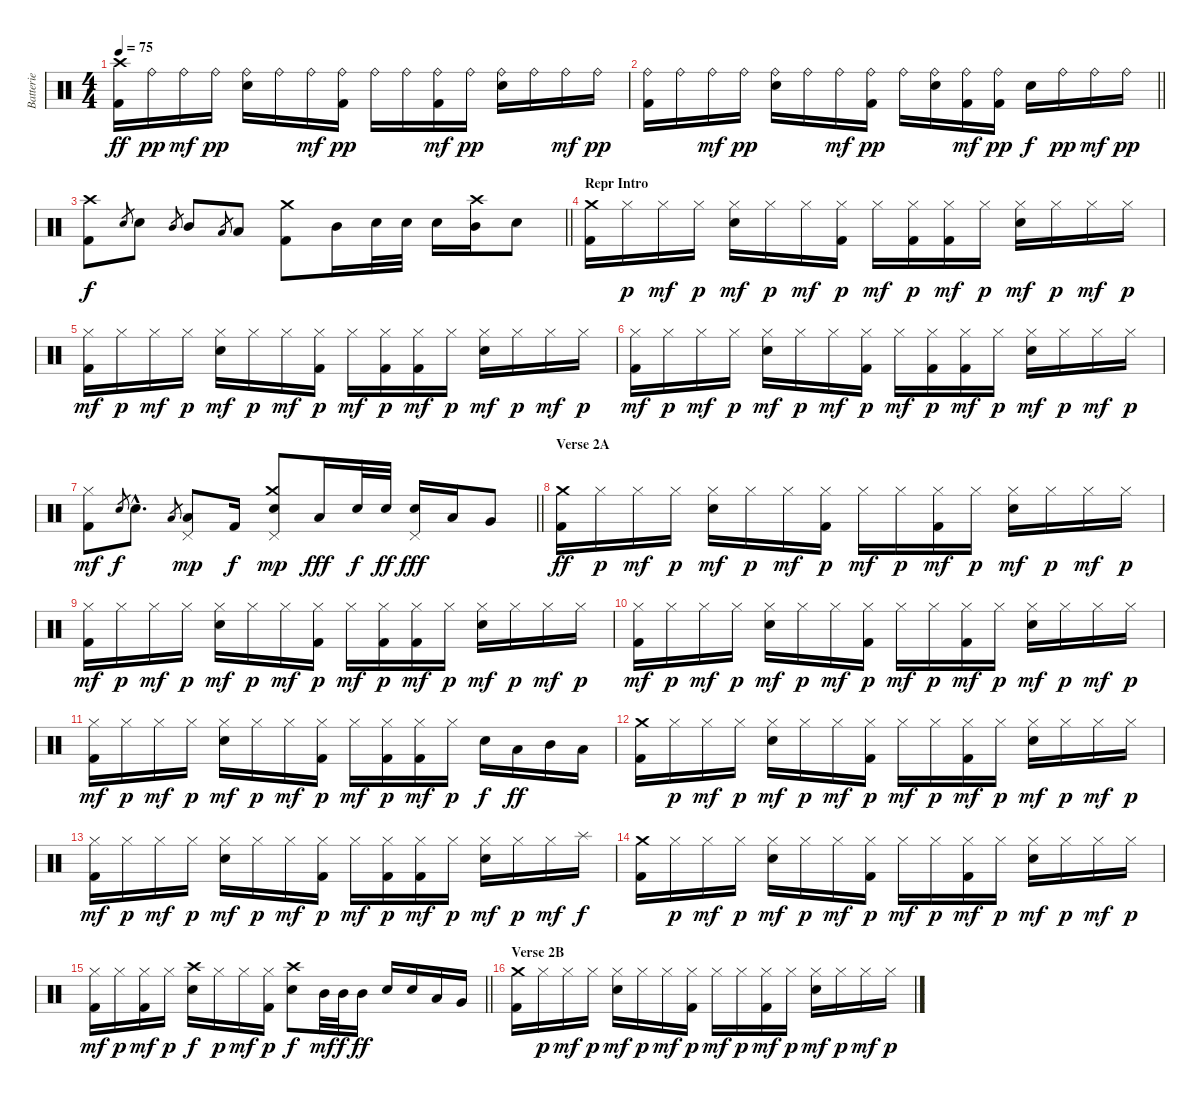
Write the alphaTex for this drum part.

\track ("Batterie" "Batterie") {instrument percussion}
\staff {score}
\articulation defaults
\ts (4 4)
\tempo 75
\clef neutral
\ks c
("Crash high (hit)" "Kick (hit) 2").16{dy ff} "Ride (bell)".16{dy pp} "Ride (bell)".16{dy mf} "Ride (bell)".16{dy pp} ("Ride (bell)" "Electric Snare (hit)").16 "Ride (bell)".16 "Ride (bell)".16{dy mf} ("Ride (bell)" "Kick (hit) 2").16{dy pp} "Ride (bell)".16 "Ride (bell)".16 ("Ride (bell)" "Kick (hit) 2").16{dy mf} "Ride (bell)".16{dy pp} ("Ride (bell)" "Electric Snare (hit)").16 "Ride (bell)".16 "Ride (bell)".16{dy mf} "Ride (bell)".16{dy pp} |
\barLineRight lightlight
("Ride (bell)" "Kick (hit) 2").16 "Ride (bell)".16 "Ride (bell)".16{dy mf} "Ride (bell)".16{dy pp} ("Ride (bell)" "Electric Snare (hit)").16 "Ride (bell)".16 "Ride (bell)".16{dy mf} ("Ride (bell)" "Kick (hit) 2").16{dy pp} "Ride (bell)".16 ("Ride (bell)" "Electric Snare (hit)").16 ("Ride (bell)" "Kick (hit) 2").16{dy mf} ("Ride (bell)" "Kick (hit) 2").16{dy pp} "Electric Snare (hit)".16{dy f} "Ride (bell)".16{dy pp} "Ride (bell)".16{dy mf} "Ride (bell)".16{dy pp} |
\barLineRight lightlight
("Crash high (hit)" "Kick (hit) 2").8{dy f} "Electric Snare (hit)".8{gr} "Electric Snare (hit)".8 "Mid Tom (hit)".8{gr} "Mid Tom (hit)".8 "Low Tom (hit)".8{gr} "Low Tom (hit)".8 ("Crash medium (hit)" "Kick (hit) 2").8 "Mid Tom (hit)".16 "Electric Snare (hit)".32 "Electric Snare (hit)".32 "Electric Snare (hit)".16 ("Crash high (hit)" "Mid Tom (hit)").16 "Electric Snare (hit)".8 |
\section ("" "Repr Intro")
("Crash medium (hit)" "Kick (hit) 2").16 "Hi-Hat (closed)".16{dy p} "Hi-Hat (closed)".16{dy mf} "Hi-Hat (closed)".16{dy p} ("Hi-Hat (closed)" "Electric Snare (hit)").16{dy mf} "Hi-Hat (closed)".16{dy p} "Hi-Hat (closed)".16{dy mf} ("Hi-Hat (closed)" "Kick (hit) 2").16{dy p} "Hi-Hat (closed)".16{dy mf} ("Hi-Hat (closed)" "Kick (hit) 2").16{dy p} ("Hi-Hat (closed)" "Kick (hit) 2").16{dy mf} "Hi-Hat (closed)".16{dy p} ("Hi-Hat (closed)" "Electric Snare (hit)").16{dy mf} "Hi-Hat (closed)".16{dy p} "Hi-Hat (closed)".16{dy mf} "Hi-Hat (closed)".16{dy p} |
("Hi-Hat (closed)" "Kick (hit) 2").16{dy mf} "Hi-Hat (closed)".16{dy p} "Hi-Hat (closed)".16{dy mf} "Hi-Hat (closed)".16{dy p} ("Hi-Hat (closed)" "Electric Snare (hit)").16{dy mf} "Hi-Hat (closed)".16{dy p} "Hi-Hat (closed)".16{dy mf} ("Hi-Hat (closed)" "Kick (hit) 2").16{dy p} "Hi-Hat (closed)".16{dy mf} ("Hi-Hat (closed)" "Kick (hit) 2").16{dy p} ("Hi-Hat (closed)" "Kick (hit) 2").16{dy mf} "Hi-Hat (closed)".16{dy p} ("Hi-Hat (closed)" "Electric Snare (hit)").16{dy mf} "Hi-Hat (closed)".16{dy p} "Hi-Hat (closed)".16{dy mf} "Hi-Hat (closed)".16{dy p} |
("Hi-Hat (closed)" "Kick (hit) 2").16{dy mf} "Hi-Hat (closed)".16{dy p} "Hi-Hat (closed)".16{dy mf} "Hi-Hat (closed)".16{dy p} ("Hi-Hat (closed)" "Electric Snare (hit)").16{dy mf} "Hi-Hat (closed)".16{dy p} "Hi-Hat (closed)".16{dy mf} ("Hi-Hat (closed)" "Kick (hit) 2").16{dy p} "Hi-Hat (closed)".16{dy mf} ("Hi-Hat (closed)" "Kick (hit) 2").16{dy p} ("Hi-Hat (closed)" "Kick (hit) 2").16{dy mf} "Hi-Hat (closed)".16{dy p} ("Hi-Hat (closed)" "Electric Snare (hit)").16{dy mf} "Hi-Hat (closed)".16{dy p} "Hi-Hat (closed)".16{dy mf} "Hi-Hat (closed)".16{dy p} |
\barLineRight lightlight
("Hi-Hat (closed)" "Kick (hit) 2").8{dy mf} "Electric Snare (hit)".8{gr dy f} "Electric Snare (hit)"{hac}.8{d} "Low Tom (hit)".8{gr} ("Pedal Hi-Hat (hit)" "Low Tom (hit)").8{dy mp} "Kick (hit) 2".16{dy f} ("Pedal Hi-Hat (hit)" "Crash medium (hit)" "Electric Snare (hit)").8{dy mp} "Low Tom (hit)".16{dy fff} "Electric Snare (hit)".32{dy f} "Electric Snare (hit)".32{dy ff} ("Pedal Hi-Hat (hit)" "Electric Snare (hit)").16{dy fff} "Low Tom (hit)".16 "Very Low Tom (hit)".8 |
\section ("" "Verse 2A")
("Crash medium (hit)" "Kick (hit) 2").16{dy ff} "Hi-Hat (closed)".16{dy p} "Hi-Hat (closed)".16{dy mf} "Hi-Hat (closed)".16{dy p} ("Hi-Hat (closed)" "Electric Snare (hit)").16{dy mf} "Hi-Hat (closed)".16{dy p} "Hi-Hat (closed)".16{dy mf} ("Hi-Hat (closed)" "Kick (hit) 2").16{dy p} "Hi-Hat (closed)".16{dy mf} "Hi-Hat (closed)".16{dy p} ("Hi-Hat (closed)" "Kick (hit) 2").16{dy mf} "Hi-Hat (closed)".16{dy p} ("Hi-Hat (closed)" "Electric Snare (hit)").16{dy mf} "Hi-Hat (closed)".16{dy p} "Hi-Hat (closed)".16{dy mf} "Hi-Hat (closed)".16{dy p} |
("Hi-Hat (closed)" "Kick (hit) 2").16{dy mf} "Hi-Hat (closed)".16{dy p} "Hi-Hat (closed)".16{dy mf} "Hi-Hat (closed)".16{dy p} ("Hi-Hat (closed)" "Electric Snare (hit)").16{dy mf} "Hi-Hat (closed)".16{dy p} "Hi-Hat (closed)".16{dy mf} ("Hi-Hat (closed)" "Kick (hit) 2").16{dy p} "Hi-Hat (closed)".16{dy mf} ("Hi-Hat (closed)" "Kick (hit) 2").16{dy p} ("Hi-Hat (closed)" "Kick (hit) 2").16{dy mf} "Hi-Hat (closed)".16{dy p} ("Hi-Hat (closed)" "Electric Snare (hit)").16{dy mf} "Hi-Hat (closed)".16{dy p} "Hi-Hat (closed)".16{dy mf} "Hi-Hat (closed)".16{dy p} |
("Hi-Hat (closed)" "Kick (hit) 2").16{dy mf} "Hi-Hat (closed)".16{dy p} "Hi-Hat (closed)".16{dy mf} "Hi-Hat (closed)".16{dy p} ("Hi-Hat (closed)" "Electric Snare (hit)").16{dy mf} "Hi-Hat (closed)".16{dy p} "Hi-Hat (closed)".16{dy mf} ("Hi-Hat (closed)" "Kick (hit) 2").16{dy p} "Hi-Hat (closed)".16{dy mf} "Hi-Hat (closed)".16{dy p} ("Hi-Hat (closed)" "Kick (hit) 2").16{dy mf} "Hi-Hat (closed)".16{dy p} ("Hi-Hat (closed)" "Electric Snare (hit)").16{dy mf} "Hi-Hat (closed)".16{dy p} "Hi-Hat (closed)".16{dy mf} "Hi-Hat (closed)".16{dy p} |
("Hi-Hat (closed)" "Kick (hit) 2").16{dy mf} "Hi-Hat (closed)".16{dy p} "Hi-Hat (closed)".16{dy mf} "Hi-Hat (closed)".16{dy p} ("Hi-Hat (closed)" "Electric Snare (hit)").16{dy mf} "Hi-Hat (closed)".16{dy p} "Hi-Hat (closed)".16{dy mf} ("Hi-Hat (closed)" "Kick (hit) 2").16{dy p} "Hi-Hat (closed)".16{dy mf} ("Hi-Hat (closed)" "Kick (hit) 2").16{dy p} ("Hi-Hat (closed)" "Kick (hit) 2").16{dy mf} "Hi-Hat (closed)".16{dy p} "Electric Snare (hit)".16{dy f} "Low Tom (hit)".16{dy ff} "Mid Tom (hit)".16 "Low Tom (hit)".16 |
("Crash medium (hit)" "Kick (hit) 2").16 "Hi-Hat (closed)".16{dy p} "Hi-Hat (closed)".16{dy mf} "Hi-Hat (closed)".16{dy p} ("Hi-Hat (closed)" "Electric Snare (hit)").16{dy mf} "Hi-Hat (closed)".16{dy p} "Hi-Hat (closed)".16{dy mf} ("Hi-Hat (closed)" "Kick (hit) 2").16{dy p} "Hi-Hat (closed)".16{dy mf} "Hi-Hat (closed)".16{dy p} ("Hi-Hat (closed)" "Kick (hit) 2").16{dy mf} "Hi-Hat (closed)".16{dy p} ("Hi-Hat (closed)" "Electric Snare (hit)").16{dy mf} "Hi-Hat (closed)".16{dy p} "Hi-Hat (closed)".16{dy mf} "Hi-Hat (closed)".16{dy p} |
("Hi-Hat (closed)" "Kick (hit) 2").16{dy mf} "Hi-Hat (closed)".16{dy p} "Hi-Hat (closed)".16{dy mf} "Hi-Hat (closed)".16{dy p} ("Hi-Hat (closed)" "Electric Snare (hit)").16{dy mf} "Hi-Hat (closed)".16{dy p} "Hi-Hat (closed)".16{dy mf} ("Hi-Hat (closed)" "Kick (hit) 2").16{dy p} "Hi-Hat (closed)".16{dy mf} ("Hi-Hat (closed)" "Kick (hit) 2").16{dy p} ("Hi-Hat (closed)" "Kick (hit) 2").16{dy mf} "Hi-Hat (closed)".16{dy p} ("Hi-Hat (closed)" "Electric Snare (hit)").16{dy mf} "Hi-Hat (closed)".16{dy p} "Hi-Hat (closed)".16{dy mf} "Splash (hit)".16{dy f} |
("Crash medium (hit)" "Kick (hit) 2").16 "Hi-Hat (closed)".16{dy p} "Hi-Hat (closed)".16{dy mf} "Hi-Hat (closed)".16{dy p} ("Hi-Hat (closed)" "Electric Snare (hit)").16{dy mf} "Hi-Hat (closed)".16{dy p} "Hi-Hat (closed)".16{dy mf} ("Hi-Hat (closed)" "Kick (hit) 2").16{dy p} "Hi-Hat (closed)".16{dy mf} "Hi-Hat (closed)".16{dy p} ("Hi-Hat (closed)" "Kick (hit) 2").16{dy mf} "Hi-Hat (closed)".16{dy p} ("Hi-Hat (closed)" "Electric Snare (hit)").16{dy mf} "Hi-Hat (closed)".16{dy p} "Hi-Hat (closed)".16{dy mf} "Hi-Hat (closed)".16{dy p} |
\barLineRight lightlight
("Hi-Hat (closed)" "Kick (hit) 2").16{dy mf} "Hi-Hat (closed)".16{dy p} ("Hi-Hat (closed)" "Kick (hit) 2").16{dy mf} "Hi-Hat (closed)".16{dy p} ("Crash high (hit)" "Electric Snare (hit)").16{dy f} "Hi-Hat (closed)".16{dy p} "Hi-Hat (closed)".16{dy mf} ("Hi-Hat (closed)" "Kick (hit) 2").16{dy p} ("Crash high (hit)" "Electric Snare (hit)").8{dy f} "Mid Tom (hit)".32{dy mf} "Mid Tom (hit)".32{dy f} "Mid Tom (hit)".16{dy ff} "Electric Snare (hit)".16 "Electric Snare (hit)".16 "Low Tom (hit)".16 "Very Low Tom (hit)".16 |
\section ("" "Verse 2B")
("Crash medium (hit)" "Kick (hit) 2").16 "Hi-Hat (closed)".16{dy p} "Hi-Hat (closed)".16{dy mf} "Hi-Hat (closed)".16{dy p} ("Hi-Hat (closed)" "Electric Snare (hit)").16{dy mf} "Hi-Hat (closed)".16{dy p} "Hi-Hat (closed)".16{dy mf} ("Hi-Hat (closed)" "Kick (hit) 2").16{dy p} "Hi-Hat (closed)".16{dy mf} "Hi-Hat (closed)".16{dy p} ("Hi-Hat (closed)" "Kick (hit) 2").16{dy mf} "Hi-Hat (closed)".16{dy p} ("Hi-Hat (closed)" "Electric Snare (hit)").16{dy mf} "Hi-Hat (closed)".16{dy p} "Hi-Hat (closed)".16{dy mf} "Hi-Hat (closed)".16{dy p}
